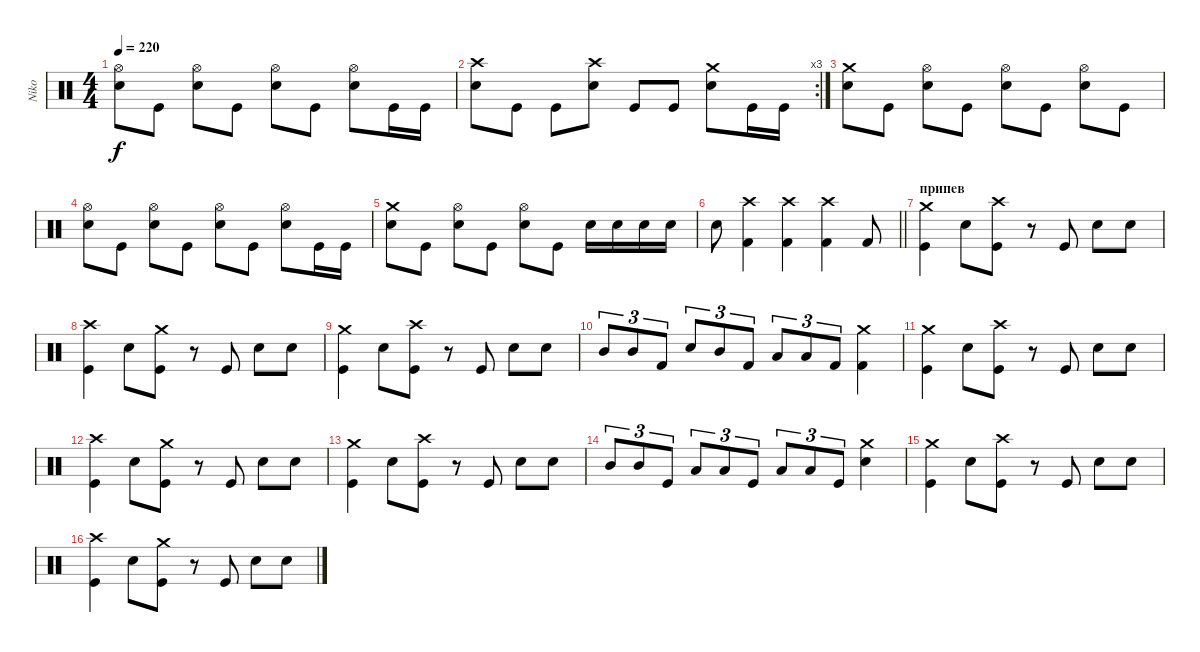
\track ("Niko" "Niko") {instrument percussion}
\staff {score}
\articulation defaults
\ts (4 4)
\tempo 220
\clef neutral
\ks c
("Hi-Hat (open)" "Snare (hit) 2").8{dy f} "Kick (hit)".8 ("Hi-Hat (open)" "Snare (hit) 2").8 "Kick (hit)".8 ("Hi-Hat (open)" "Snare (hit) 2").8 "Kick (hit)".8 ("Hi-Hat (open)" "Snare (hit) 2").8 "Kick (hit)".16 "Kick (hit)".16 |
\rc 3
("Crash high (hit)" "Snare (hit) 2").8 "Kick (hit)".8 "Kick (hit)".8 ("Crash high (hit)" "Snare (hit) 2").8 "Kick (hit)".8 "Kick (hit)".8 ("Crash medium (hit)" "Snare (hit) 2").8 "Kick (hit)".16 "Kick (hit)".16 |
("Crash medium (hit)" "Snare (hit) 2").8 "Kick (hit)".8 ("Hi-Hat (open)" "Snare (hit) 2").8 "Kick (hit)".8 ("Hi-Hat (open)" "Snare (hit) 2").8 "Kick (hit)".8 ("Hi-Hat (open)" "Snare (hit) 2").8 "Kick (hit)".8 |
("Hi-Hat (open)" "Snare (hit) 2").8 "Kick (hit)".8 ("Hi-Hat (open)" "Snare (hit) 2").8 "Kick (hit)".8 ("Hi-Hat (open)" "Snare (hit) 2").8 "Kick (hit)".8 ("Hi-Hat (open)" "Snare (hit) 2").8 "Kick (hit)".16 "Kick (hit)".16 |
("Crash medium (hit)" "Snare (hit) 2").8 "Kick (hit)".8 ("Hi-Hat (open)" "Snare (hit) 2").8 "Kick (hit)".8 ("Hi-Hat (open)" "Snare (hit) 2").8 "Kick (hit)".8 "Snare (hit) 2".16 "Snare (hit) 2".16 "Snare (hit) 2".16 "Snare (hit) 2".16 |
\barLineRight lightlight "Snare (hit) 2".8
("Crash high (hit)" "Kick (hit) 2").4 ("Crash high (hit)" "Kick (hit) 2").4 ("Crash high (hit)" "Kick (hit) 2").4 "Kick (hit) 2".8 |
\section ("" "припев")
("Crash medium (hit)" "Kick (hit)").4 "Snare (hit) 2".8 ("Crash high (hit)" "Kick (hit)").8 r.8 "Kick (hit)".8 "Snare (hit) 2".8 "Snare (hit) 2".8 |
("Crash high (hit)" "Kick (hit)").4 "Snare (hit) 2".8 ("Crash medium (hit)" "Kick (hit)").8 r.8 "Kick (hit)".8 "Snare (hit) 2".8 "Snare (hit) 2".8 |
("Crash medium (hit)" "Kick (hit)").4 "Snare (hit) 2".8 ("Crash high (hit)" "Kick (hit)").8 r.8 "Kick (hit)".8 "Snare (hit) 2".8 "Snare (hit) 2".8 |
"Mid Tom (hit)".8{tu (3 2)} "Mid Tom (hit)".8{tu (3 2)} "Kick (hit) 2".8{tu (3 2)} "Snare (hit) 2".8{tu (3 2)} "Mid Tom (hit)".8{tu (3 2)} "Kick (hit) 2".8{tu (3 2)} "Low Tom (hit)".8{tu (3 2)} "Low Tom (hit)".8{tu (3 2)} "Kick (hit) 2".8{tu (3 2)} ("Crash medium (hit)" "Kick (hit) 2").4 |
("Crash medium (hit)" "Kick (hit)").4 "Snare (hit) 2".8 ("Crash high (hit)" "Kick (hit)").8 r.8 "Kick (hit)".8 "Snare (hit) 2".8 "Snare (hit) 2".8 |
("Crash high (hit)" "Kick (hit)").4 "Snare (hit) 2".8 ("Crash medium (hit)" "Kick (hit)").8 r.8 "Kick (hit)".8 "Snare (hit) 2".8 "Snare (hit) 2".8 |
("Crash medium (hit)" "Kick (hit)").4 "Snare (hit) 2".8 ("Crash high (hit)" "Kick (hit)").8 r.8 "Kick (hit)".8 "Snare (hit) 2".8 "Snare (hit) 2".8 |
"Mid Tom (hit)".8{tu (3 2)} "Mid Tom (hit)".8{tu (3 2)} "Kick (hit)".8{tu (3 2)} "Low Tom (hit)".8{tu (3 2)} "Low Tom (hit)".8{tu (3 2)} "Kick (hit)".8{tu (3 2)} "Low Floor Tom (hit)".8{tu (3 2)} "Low Floor Tom (hit)".8{tu (3 2)} "Kick (hit)".8{tu (3 2)} ("Crash medium (hit)" "Snare (hit) 2").4 |
("Crash medium (hit)" "Kick (hit)").4 "Snare (hit) 2".8 ("Crash high (hit)" "Kick (hit)").8 r.8 "Kick (hit)".8 "Snare (hit) 2".8 "Snare (hit) 2".8 |
("Crash high (hit)" "Kick (hit)").4 "Snare (hit) 2".8 ("Crash medium (hit)" "Kick (hit)").8 r.8 "Kick (hit)".8 "Snare (hit) 2".8 "Snare (hit) 2".8
